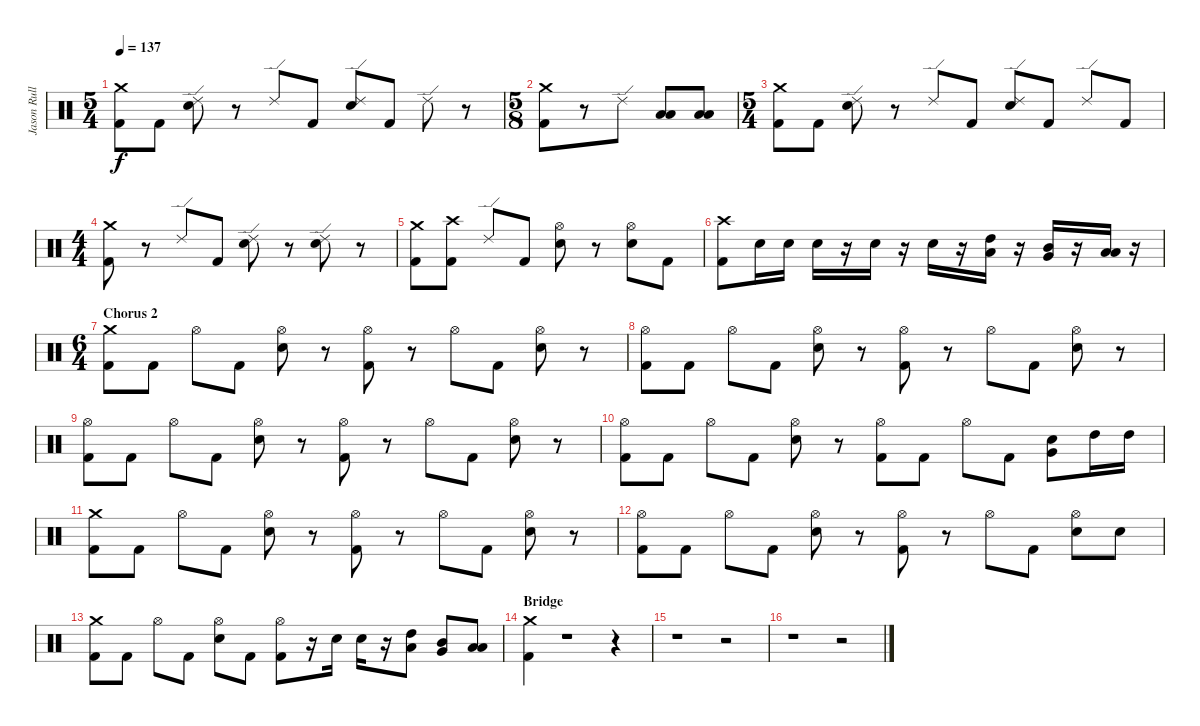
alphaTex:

\track ("Jason Rullo" "Jason Rull") {instrument percussion}
\staff {score}
\articulation defaults
\ts (5 4)
\tempo 137
\clef neutral
\ks c
("Crash medium (hit)" "Kick (hit) 2").8{dy f} "Kick (hit) 2".8 ("Ride (edge) 2" "Electric Snare (hit)").8 r.8 "Ride (edge) 2".8 "Kick (hit) 2".8 ("Ride (edge) 2" "Electric Snare (hit)").8 "Kick (hit) 2".8 "Ride (edge) 2".8 r.8 |
\ts (5 8)
("Crash medium (hit)" "Kick (hit) 2").8 r.8 "Ride (edge) 2".8 ("Low Floor Tom (hit)" "Low Tom (hit)").8 ("Low Floor Tom (hit)" "Low Tom (hit)").8 |
\ts (5 4)
("Crash medium (hit)" "Kick (hit) 2").8 "Kick (hit) 2".8 ("Ride (edge) 2" "Electric Snare (hit)").8 r.8 "Ride (edge) 2".8 "Kick (hit) 2".8 ("Ride (edge) 2" "Electric Snare (hit)").8 "Kick (hit) 2".8 "Ride (edge) 2".8 "Kick (hit) 2".8 |
\ts (4 4)
("Kick (hit) 2" "Crash medium (hit)").8 r.8 "Ride (edge) 2".8 "Kick (hit) 2".8 ("Electric Snare (hit)" "Ride (edge) 2").8 r.8 ("Electric Snare (hit)" "Ride (edge) 2").8 r.8 |
("Crash medium (hit)" "Kick (hit) 2").8 ("Crash high (hit)" "Kick (hit) 2").8 "Ride (edge) 2".8 "Kick (hit) 2".8 ("Hi-Hat (open)" "Electric Snare (hit)").8 r.8 ("Hi-Hat (open)" "Electric Snare (hit)").8 "Kick (hit) 2".8 |
("Crash high (hit)" "Kick (hit) 2").8 "Electric Snare (hit)".16 "Electric Snare (hit)".16 "Electric Snare (hit)".16 r.16 "Electric Snare (hit)".16 r.16 "Electric Snare (hit)".16 r.16 ("High Tom (hit)" "Low Tom (hit)").16 r.16 ("Mid Tom (hit)" "Very Low Tom (hit)").16 r.16 ("Low Tom (hit)" "Low Floor Tom (hit)").16 r.16 |
\ts (6 4)
\section ("" "Chorus 2")
("Crash medium (hit)" "Kick (hit) 2").8 "Kick (hit) 2".8 "Hi-Hat (open)".8 "Kick (hit) 2".8 ("Hi-Hat (open)" "Electric Snare (hit)").8 r.8 ("Hi-Hat (open)" "Kick (hit) 2").8 r.8 "Hi-Hat (open)".8 "Kick (hit) 2".8 ("Hi-Hat (open)" "Electric Snare (hit)").8 r.8 |
("Hi-Hat (open)" "Kick (hit) 2").8 "Kick (hit) 2".8 "Hi-Hat (open)".8 "Kick (hit) 2".8 ("Hi-Hat (open)" "Electric Snare (hit)").8 r.8 ("Hi-Hat (open)" "Kick (hit) 2").8 r.8 "Hi-Hat (open)".8 "Kick (hit) 2".8 ("Hi-Hat (open)" "Electric Snare (hit)").8 r.8 |
("Hi-Hat (open)" "Kick (hit) 2").8 "Kick (hit) 2".8 "Hi-Hat (open)".8 "Kick (hit) 2".8 ("Hi-Hat (open)" "Electric Snare (hit)").8 r.8 ("Hi-Hat (open)" "Kick (hit) 2").8 r.8 "Hi-Hat (open)".8 "Kick (hit) 2".8 ("Hi-Hat (open)" "Electric Snare (hit)").8 r.8 |
("Hi-Hat (open)" "Kick (hit) 2").8 "Kick (hit) 2".8 "Hi-Hat (open)".8 "Kick (hit) 2".8 ("Hi-Hat (open)" "Electric Snare (hit)").8 r.8 ("Hi-Hat (open)" "Kick (hit) 2").8 "Kick (hit) 2".8 "Hi-Hat (open)".8 "Kick (hit) 2".8 ("Very Low Tom (hit)" "Electric Snare (hit)").8 "High Tom (hit)".16 "High Tom (hit)".16 |
("Crash medium (hit)" "Kick (hit) 2").8 "Kick (hit) 2".8 "Hi-Hat (open)".8 "Kick (hit) 2".8 ("Hi-Hat (open)" "Electric Snare (hit)").8 r.8 ("Hi-Hat (open)" "Kick (hit) 2").8 r.8 "Hi-Hat (open)".8 "Kick (hit) 2".8 ("Hi-Hat (open)" "Electric Snare (hit)").8 r.8 |
("Hi-Hat (open)" "Kick (hit) 2").8 "Kick (hit) 2".8 "Hi-Hat (open)".8 "Kick (hit) 2".8 ("Hi-Hat (open)" "Electric Snare (hit)").8 r.8 ("Hi-Hat (open)" "Kick (hit) 2").8 r.8 "Hi-Hat (open)".8 "Kick (hit) 2".8 ("Hi-Hat (open)" "Electric Snare (hit)").8 "Electric Snare (hit)".8 |
("Crash medium (hit)" "Kick (hit) 2").8 "Kick (hit) 2".8 "Hi-Hat (open)".8 "Kick (hit) 2".8 ("Hi-Hat (open)" "Electric Snare (hit)").8 "Kick (hit) 2".8 ("Hi-Hat (open)" "Kick (hit) 2").8 r.16 "Electric Snare (hit)".16 "Electric Snare (hit)".16 r.16 ("High Tom (hit)" "Low Tom (hit)").8 ("Mid Tom (hit)" "Very Low Tom (hit)").8 ("Low Tom (hit)" "Low Floor Tom (hit)").8 |
\section ("" "Bridge")
("Crash medium (hit)" "Kick (hit) 2").4 r.1 r.4 |
r.1 r.2 |
r.1 r.2
